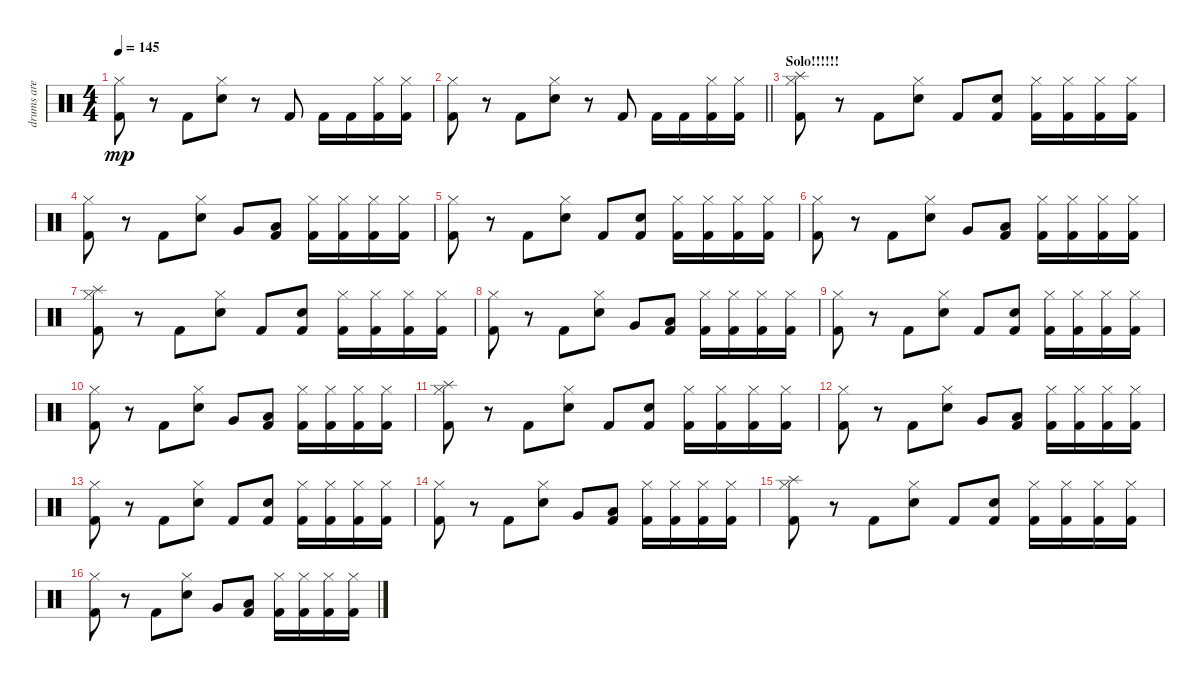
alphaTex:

\track ("drums are cool   >.<" "drums are ") {instrument percussion}
\staff {score}
\articulation defaults
\ts (4 4)
\tempo 145
\clef neutral
\ks c
("Hi-Hat (closed)" "Kick (hit) 2").8{dy mp} r.8 "Kick (hit) 2".8 ("Hi-Hat (closed)" "Snare (hit) 2").8 r.8 "Kick (hit) 2".8 "Kick (hit) 2".16 "Kick (hit) 2".16 ("Hi-Hat (closed)" "Kick (hit) 2").16 ("Hi-Hat (closed)" "Kick (hit) 2").16 |
\barLineRight lightlight
("Hi-Hat (closed)" "Kick (hit) 2").8 r.8 "Kick (hit) 2".8 ("Hi-Hat (closed)" "Snare (hit) 2").8 r.8 "Kick (hit) 2".8 "Kick (hit) 2".16 "Kick (hit) 2".16 ("Hi-Hat (closed)" "Kick (hit) 2").16 ("Hi-Hat (closed)" "Kick (hit) 2").16 |
\section ("" "Solo!!!!!!")
("Splash (hit)" "Hi-Hat (closed)" "Kick (hit) 2").8 r.8 "Kick (hit) 2".8 ("Hi-Hat (closed)" "Snare (hit) 2").8 "Kick (hit) 2".8 ("Snare (hit) 2" "Kick (hit) 2").8 ("Hi-Hat (closed)" "Kick (hit) 2").16 ("Hi-Hat (closed)" "Kick (hit) 2").16 ("Hi-Hat (closed)" "Kick (hit) 2").16 ("Hi-Hat (closed)" "Kick (hit) 2").16 |
("Hi-Hat (closed)" "Kick (hit) 2").8 r.8 "Kick (hit) 2".8 ("Hi-Hat (closed)" "Snare (hit) 2").8 "Very Low Tom (hit)".8 ("Low Floor Tom (hit)" "Kick (hit) 2").8 ("Hi-Hat (closed)" "Kick (hit) 2").16 ("Hi-Hat (closed)" "Kick (hit) 2").16 ("Hi-Hat (closed)" "Kick (hit) 2").16 ("Hi-Hat (closed)" "Kick (hit) 2").16 |
("Hi-Hat (closed)" "Kick (hit) 2").8 r.8 "Kick (hit) 2".8 ("Hi-Hat (closed)" "Snare (hit) 2").8 "Kick (hit) 2".8 ("Snare (hit) 2" "Kick (hit) 2").8 ("Hi-Hat (closed)" "Kick (hit) 2").16 ("Hi-Hat (closed)" "Kick (hit) 2").16 ("Hi-Hat (closed)" "Kick (hit) 2").16 ("Hi-Hat (closed)" "Kick (hit) 2").16 |
("Hi-Hat (closed)" "Kick (hit) 2").8 r.8 "Kick (hit) 2".8 ("Hi-Hat (closed)" "Snare (hit) 2").8 "Very Low Tom (hit)".8 ("Low Floor Tom (hit)" "Kick (hit) 2").8 ("Hi-Hat (closed)" "Kick (hit) 2").16 ("Hi-Hat (closed)" "Kick (hit) 2").16 ("Hi-Hat (closed)" "Kick (hit) 2").16 ("Hi-Hat (closed)" "Kick (hit) 2").16 |
("Splash (hit)" "Hi-Hat (closed)" "Kick (hit) 2").8 r.8 "Kick (hit) 2".8 ("Hi-Hat (closed)" "Snare (hit) 2").8 "Kick (hit) 2".8 ("Snare (hit) 2" "Kick (hit) 2").8 ("Hi-Hat (closed)" "Kick (hit) 2").16 ("Hi-Hat (closed)" "Kick (hit) 2").16 ("Hi-Hat (closed)" "Kick (hit) 2").16 ("Hi-Hat (closed)" "Kick (hit) 2").16 |
("Hi-Hat (closed)" "Kick (hit) 2").8 r.8 "Kick (hit) 2".8 ("Hi-Hat (closed)" "Snare (hit) 2").8 "Very Low Tom (hit)".8 ("Low Floor Tom (hit)" "Kick (hit) 2").8 ("Hi-Hat (closed)" "Kick (hit) 2").16 ("Hi-Hat (closed)" "Kick (hit) 2").16 ("Hi-Hat (closed)" "Kick (hit) 2").16 ("Hi-Hat (closed)" "Kick (hit) 2").16 |
("Hi-Hat (closed)" "Kick (hit) 2").8 r.8 "Kick (hit) 2".8 ("Hi-Hat (closed)" "Snare (hit) 2").8 "Kick (hit) 2".8 ("Snare (hit) 2" "Kick (hit) 2").8 ("Hi-Hat (closed)" "Kick (hit) 2").16 ("Hi-Hat (closed)" "Kick (hit) 2").16 ("Hi-Hat (closed)" "Kick (hit) 2").16 ("Hi-Hat (closed)" "Kick (hit) 2").16 |
("Hi-Hat (closed)" "Kick (hit) 2").8 r.8 "Kick (hit) 2".8 ("Hi-Hat (closed)" "Snare (hit) 2").8 "Very Low Tom (hit)".8 ("Low Floor Tom (hit)" "Kick (hit) 2").8 ("Hi-Hat (closed)" "Kick (hit) 2").16 ("Hi-Hat (closed)" "Kick (hit) 2").16 ("Hi-Hat (closed)" "Kick (hit) 2").16 ("Hi-Hat (closed)" "Kick (hit) 2").16 |
("Splash (hit)" "Hi-Hat (closed)" "Kick (hit) 2").8 r.8 "Kick (hit) 2".8 ("Hi-Hat (closed)" "Snare (hit) 2").8 "Kick (hit) 2".8 ("Snare (hit) 2" "Kick (hit) 2").8 ("Hi-Hat (closed)" "Kick (hit) 2").16 ("Hi-Hat (closed)" "Kick (hit) 2").16 ("Hi-Hat (closed)" "Kick (hit) 2").16 ("Hi-Hat (closed)" "Kick (hit) 2").16 |
("Hi-Hat (closed)" "Kick (hit) 2").8 r.8 "Kick (hit) 2".8 ("Hi-Hat (closed)" "Snare (hit) 2").8 "Very Low Tom (hit)".8 ("Low Floor Tom (hit)" "Kick (hit) 2").8 ("Hi-Hat (closed)" "Kick (hit) 2").16 ("Hi-Hat (closed)" "Kick (hit) 2").16 ("Hi-Hat (closed)" "Kick (hit) 2").16 ("Hi-Hat (closed)" "Kick (hit) 2").16 |
("Hi-Hat (closed)" "Kick (hit) 2").8 r.8 "Kick (hit) 2".8 ("Hi-Hat (closed)" "Snare (hit) 2").8 "Kick (hit) 2".8 ("Snare (hit) 2" "Kick (hit) 2").8 ("Hi-Hat (closed)" "Kick (hit) 2").16 ("Hi-Hat (closed)" "Kick (hit) 2").16 ("Hi-Hat (closed)" "Kick (hit) 2").16 ("Hi-Hat (closed)" "Kick (hit) 2").16 |
("Hi-Hat (closed)" "Kick (hit) 2").8 r.8 "Kick (hit) 2".8 ("Hi-Hat (closed)" "Snare (hit) 2").8 "Very Low Tom (hit)".8 ("Low Floor Tom (hit)" "Kick (hit) 2").8 ("Hi-Hat (closed)" "Kick (hit) 2").16 ("Hi-Hat (closed)" "Kick (hit) 2").16 ("Hi-Hat (closed)" "Kick (hit) 2").16 ("Hi-Hat (closed)" "Kick (hit) 2").16 |
("Splash (hit)" "Hi-Hat (closed)" "Kick (hit) 2").8 r.8 "Kick (hit) 2".8 ("Hi-Hat (closed)" "Snare (hit) 2").8 "Kick (hit) 2".8 ("Snare (hit) 2" "Kick (hit) 2").8 ("Hi-Hat (closed)" "Kick (hit) 2").16 ("Hi-Hat (closed)" "Kick (hit) 2").16 ("Hi-Hat (closed)" "Kick (hit) 2").16 ("Hi-Hat (closed)" "Kick (hit) 2").16 |
("Hi-Hat (closed)" "Kick (hit) 2").8 r.8 "Kick (hit) 2".8 ("Hi-Hat (closed)" "Snare (hit) 2").8 "Very Low Tom (hit)".8 ("Low Floor Tom (hit)" "Kick (hit) 2").8 ("Hi-Hat (closed)" "Kick (hit) 2").16 ("Hi-Hat (closed)" "Kick (hit) 2").16 ("Hi-Hat (closed)" "Kick (hit) 2").16 ("Hi-Hat (closed)" "Kick (hit) 2").16
